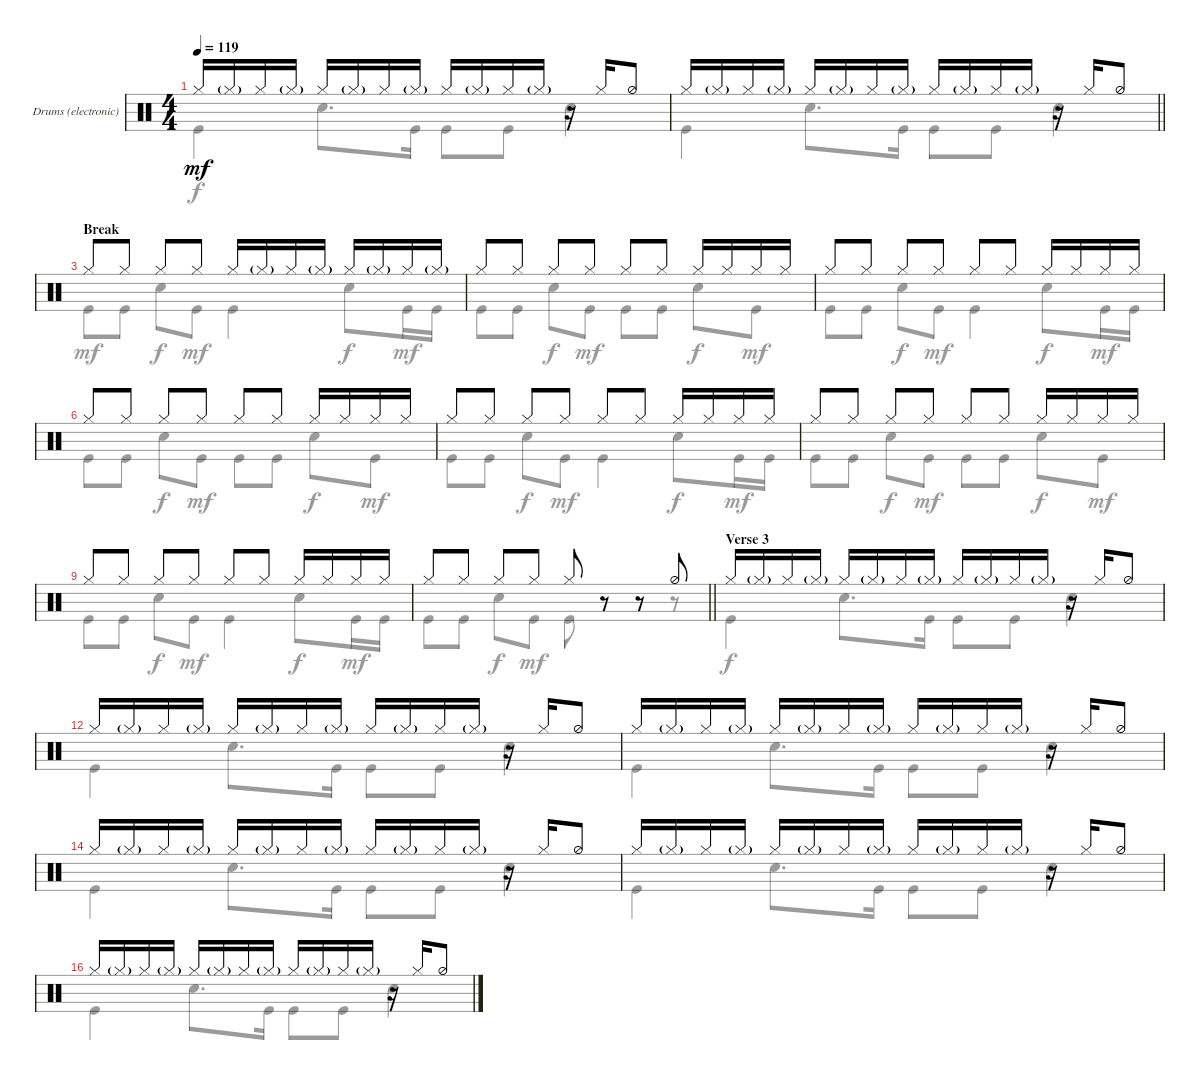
\defaultSystemsLayout 4
\bracketExtendMode groupsimilarinstruments
\useSystemSignSeparator
\multiBarRest
\multiTrackTrackNamePolicy allsystems
\firstSystemTrackNameMode fullname
\firstSystemTrackNameOrientation horizontal
\otherSystemsTrackNameOrientation horizontal
\defaultBarNumberDisplay FirstOfSystem
\track ("Drums (electronic)" "Dr.") {multiBarRest instrument percussion}
\staff {score}
\articulation defaults
\voice
\ts (4 4)
\tempo 119
\clef neutral
\ks aminor "Hi-Hat (closed)".16{dy mf} "Hi-Hat (closed)"{g}.16 "Hi-Hat (closed)".16 "Hi-Hat (closed)"{g}.16 "Hi-Hat (closed)".16 "Hi-Hat (closed)"{g}.16 "Hi-Hat (closed)".16 "Hi-Hat (closed)"{g}.16 "Hi-Hat (closed)".16 "Hi-Hat (closed)"{g}.16 "Hi-Hat (closed)".16 "Hi-Hat (closed)"{g}.16
r.16 "Hi-Hat (closed)".16 "Hi-Hat (half)".8 |
\barLineRight lightlight "Hi-Hat (closed)".16 "Hi-Hat (closed)"{g}.16 "Hi-Hat (closed)".16 "Hi-Hat (closed)"{g}.16 "Hi-Hat (closed)".16 "Hi-Hat (closed)"{g}.16 "Hi-Hat (closed)".16 "Hi-Hat (closed)"{g}.16 "Hi-Hat (closed)".16 "Hi-Hat (closed)"{g}.16 "Hi-Hat (closed)".16 "Hi-Hat (closed)"{g}.16
r.16 "Hi-Hat (closed)".16 "Hi-Hat (half)".8 |
\section ("" "Break")
"Hi-Hat (closed)".8 "Hi-Hat (closed)".8 "Hi-Hat (closed)".8 "Hi-Hat (closed)".8 "Hi-Hat (closed)".16 "Hi-Hat (closed)"{g}.16 "Hi-Hat (closed)".16 "Hi-Hat (closed)"{g}.16 "Hi-Hat (closed)".16 "Hi-Hat (closed)"{g}.16 "Hi-Hat (closed)".16 "Hi-Hat (closed)"{g}.16 |
"Hi-Hat (closed)".8 "Hi-Hat (closed)".8 "Hi-Hat (closed)".8 "Hi-Hat (closed)".8 "Hi-Hat (closed)".8 "Hi-Hat (closed)".8 "Hi-Hat (closed)".16 "Hi-Hat (closed)".16 "Hi-Hat (closed)".16 "Hi-Hat (closed)".16 |
"Hi-Hat (closed)".8 "Hi-Hat (closed)".8 "Hi-Hat (closed)".8 "Hi-Hat (closed)".8 "Hi-Hat (closed)".8 "Hi-Hat (closed)".8 "Hi-Hat (closed)".16 "Hi-Hat (closed)".16 "Hi-Hat (closed)".16 "Hi-Hat (closed)".16 |
"Hi-Hat (closed)".8 "Hi-Hat (closed)".8 "Hi-Hat (closed)".8 "Hi-Hat (closed)".8 "Hi-Hat (closed)".8 "Hi-Hat (closed)".8 "Hi-Hat (closed)".16 "Hi-Hat (closed)".16 "Hi-Hat (closed)".16 "Hi-Hat (closed)".16 |
"Hi-Hat (closed)".8 "Hi-Hat (closed)".8 "Hi-Hat (closed)".8 "Hi-Hat (closed)".8 "Hi-Hat (closed)".8 "Hi-Hat (closed)".8 "Hi-Hat (closed)".16 "Hi-Hat (closed)".16 "Hi-Hat (closed)".16 "Hi-Hat (closed)".16 |
"Hi-Hat (closed)".8 "Hi-Hat (closed)".8 "Hi-Hat (closed)".8 "Hi-Hat (closed)".8 "Hi-Hat (closed)".8 "Hi-Hat (closed)".8 "Hi-Hat (closed)".16 "Hi-Hat (closed)".16 "Hi-Hat (closed)".16 "Hi-Hat (closed)".16 |
"Hi-Hat (closed)".8 "Hi-Hat (closed)".8 "Hi-Hat (closed)".8 "Hi-Hat (closed)".8 "Hi-Hat (closed)".8 "Hi-Hat (closed)".8 "Hi-Hat (closed)".16 "Hi-Hat (closed)".16 "Hi-Hat (closed)".16 "Hi-Hat (closed)".16 |
\barLineRight lightlight "Hi-Hat (closed)".8 "Hi-Hat (closed)".8 "Hi-Hat (closed)".8 "Hi-Hat (closed)".8 "Hi-Hat (closed)".8
r.8 r.8 "Hi-Hat (half)".8 |
\section ("" "Verse 3")
"Hi-Hat (closed)".16 "Hi-Hat (closed)"{g}.16 "Hi-Hat (closed)".16 "Hi-Hat (closed)"{g}.16 "Hi-Hat (closed)".16 "Hi-Hat (closed)"{g}.16 "Hi-Hat (closed)".16 "Hi-Hat (closed)"{g}.16 "Hi-Hat (closed)".16 "Hi-Hat (closed)"{g}.16 "Hi-Hat (closed)".16 "Hi-Hat (closed)"{g}.16 r.16 "Hi-Hat (closed)".16 "Hi-Hat (half)".8 |
"Hi-Hat (closed)".16 "Hi-Hat (closed)"{g}.16 "Hi-Hat (closed)".16 "Hi-Hat (closed)"{g}.16 "Hi-Hat (closed)".16 "Hi-Hat (closed)"{g}.16 "Hi-Hat (closed)".16 "Hi-Hat (closed)"{g}.16 "Hi-Hat (closed)".16 "Hi-Hat (closed)"{g}.16 "Hi-Hat (closed)".16 "Hi-Hat (closed)"{g}.16 r.16 "Hi-Hat (closed)".16 "Hi-Hat (half)".8 |
"Hi-Hat (closed)".16 "Hi-Hat (closed)"{g}.16 "Hi-Hat (closed)".16 "Hi-Hat (closed)"{g}.16 "Hi-Hat (closed)".16 "Hi-Hat (closed)"{g}.16 "Hi-Hat (closed)".16 "Hi-Hat (closed)"{g}.16 "Hi-Hat (closed)".16 "Hi-Hat (closed)"{g}.16 "Hi-Hat (closed)".16 "Hi-Hat (closed)"{g}.16 r.16 "Hi-Hat (closed)".16 "Hi-Hat (half)".8 |
"Hi-Hat (closed)".16 "Hi-Hat (closed)"{g}.16 "Hi-Hat (closed)".16 "Hi-Hat (closed)"{g}.16 "Hi-Hat (closed)".16 "Hi-Hat (closed)"{g}.16 "Hi-Hat (closed)".16 "Hi-Hat (closed)"{g}.16 "Hi-Hat (closed)".16 "Hi-Hat (closed)"{g}.16 "Hi-Hat (closed)".16 "Hi-Hat (closed)"{g}.16 r.16 "Hi-Hat (closed)".16 "Hi-Hat (half)".8 |
"Hi-Hat (closed)".16 "Hi-Hat (closed)"{g}.16 "Hi-Hat (closed)".16 "Hi-Hat (closed)"{g}.16 "Hi-Hat (closed)".16 "Hi-Hat (closed)"{g}.16 "Hi-Hat (closed)".16 "Hi-Hat (closed)"{g}.16 "Hi-Hat (closed)".16 "Hi-Hat (closed)"{g}.16 "Hi-Hat (closed)".16 "Hi-Hat (closed)"{g}.16 r.16 "Hi-Hat (closed)".16 "Hi-Hat (half)".8 |
"Hi-Hat (closed)".16 "Hi-Hat (closed)"{g}.16 "Hi-Hat (closed)".16 "Hi-Hat (closed)"{g}.16 "Hi-Hat (closed)".16 "Hi-Hat (closed)"{g}.16 "Hi-Hat (closed)".16 "Hi-Hat (closed)"{g}.16 "Hi-Hat (closed)".16 "Hi-Hat (closed)"{g}.16 "Hi-Hat (closed)".16 "Hi-Hat (closed)"{g}.16 r.16 "Hi-Hat (closed)".16 "Hi-Hat (half)".8
\voice
\clef neutral
\ottava regular
\simile none
\ks aminor "Kick (hit)".4{dy f} "Snare (hit) 2".8{d} "Kick (hit)".16 "Kick (hit)".8 "Kick (hit)".8 "Snare (hit) 2".4
|
\barLineRight lightlight "Kick (hit)".4 "Snare (hit) 2".8{d} "Kick (hit)".16 "Kick (hit)".8 "Kick (hit)".8 "Snare (hit) 2".4
|
"Kick (hit)".8{dy mf} "Kick (hit)".8 "Snare (hit) 2".8{dy f} "Kick (hit)".8{dy mf} "Kick (hit)".4 "Snare (hit) 2".8{dy f} "Kick (hit)".16{dy mf} "Kick (hit)".16 |
"Kick (hit)".8 "Kick (hit)".8 "Snare (hit) 2".8{dy f} "Kick (hit)".8{dy mf} "Kick (hit)".8 "Kick (hit)".8 "Snare (hit) 2".8{dy f} "Kick (hit)".8{dy mf} |
"Kick (hit)".8 "Kick (hit)".8 "Snare (hit) 2".8{dy f} "Kick (hit)".8{dy mf} "Kick (hit)".4 "Snare (hit) 2".8{dy f} "Kick (hit)".16{dy mf} "Kick (hit)".16 |
"Kick (hit)".8 "Kick (hit)".8 "Snare (hit) 2".8{dy f} "Kick (hit)".8{dy mf} "Kick (hit)".8 "Kick (hit)".8 "Snare (hit) 2".8{dy f} "Kick (hit)".8{dy mf} |
"Kick (hit)".8 "Kick (hit)".8 "Snare (hit) 2".8{dy f} "Kick (hit)".8{dy mf} "Kick (hit)".4 "Snare (hit) 2".8{dy f} "Kick (hit)".16{dy mf} "Kick (hit)".16 |
"Kick (hit)".8 "Kick (hit)".8 "Snare (hit) 2".8{dy f} "Kick (hit)".8{dy mf} "Kick (hit)".8 "Kick (hit)".8 "Snare (hit) 2".8{dy f} "Kick (hit)".8{dy mf} |
"Kick (hit)".8 "Kick (hit)".8 "Snare (hit) 2".8{dy f} "Kick (hit)".8{dy mf} "Kick (hit)".4 "Snare (hit) 2".8{dy f} "Kick (hit)".16{dy mf} "Kick (hit)".16 |
\barLineRight lightlight "Kick (hit)".8 "Kick (hit)".8 "Snare (hit) 2".8{dy f} "Kick (hit)".8{dy mf} "Kick (hit)".8
r.8 r.8 r.8 |
"Kick (hit)".4{dy f} "Snare (hit) 2".8{d} "Kick (hit)".16 "Kick (hit)".8 "Kick (hit)".8 "Snare (hit) 2".4 |
"Kick (hit)".4 "Snare (hit) 2".8{d} "Kick (hit)".16 "Kick (hit)".8 "Kick (hit)".8 "Snare (hit) 2".4 |
"Kick (hit)".4 "Snare (hit) 2".8{d} "Kick (hit)".16 "Kick (hit)".8 "Kick (hit)".8 "Snare (hit) 2".4 |
"Kick (hit)".4 "Snare (hit) 2".8{d} "Kick (hit)".16 "Kick (hit)".8 "Kick (hit)".8 "Snare (hit) 2".4 |
"Kick (hit)".4 "Snare (hit) 2".8{d} "Kick (hit)".16 "Kick (hit)".8 "Kick (hit)".8 "Snare (hit) 2".4 |
"Kick (hit)".4 "Snare (hit) 2".8{d} "Kick (hit)".16 "Kick (hit)".8 "Kick (hit)".8 "Snare (hit) 2".4
